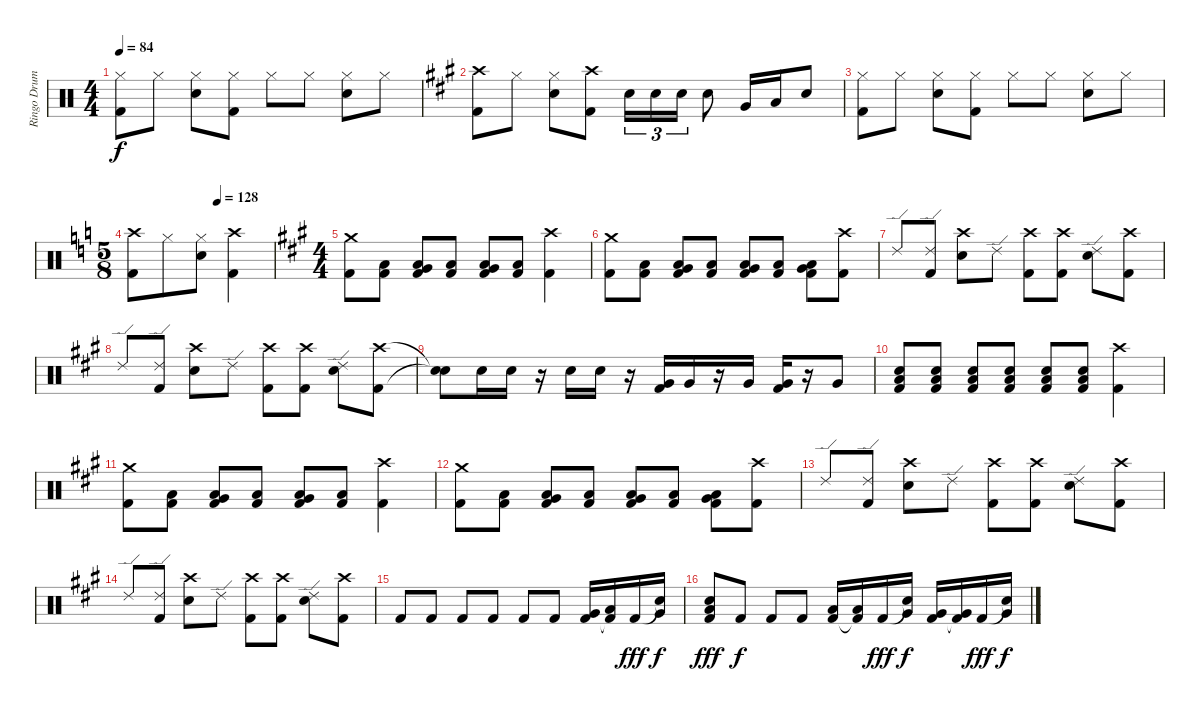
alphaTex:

\track ("Ringo Drums" "Ringo Drum") {instrument percussion}
\staff {score}
\articulation defaults
\ts (4 4)
\tempo 84
\clef neutral
\ks c
("Hi-Hat (closed)" "Kick (hit) 2").8{dy f} "Hi-Hat (closed)".8 ("Hi-Hat (closed)" "Snare (hit) 2").8 ("Hi-Hat (closed)" "Kick (hit) 2").8 "Hi-Hat (closed)".8 "Hi-Hat (closed)".8 ("Hi-Hat (closed)" "Snare (hit) 2").8 "Hi-Hat (closed)".8 |
\ks a
("Crash high (hit)" "Kick (hit) 2").8 "Hi-Hat (closed)".8 ("Hi-Hat (closed)" "Snare (hit) 2").8 ("Crash high (hit)" "Kick (hit) 2").8 "Snare (hit) 2".16{tu (3 2)} "Snare (hit) 2".16{tu (3 2)} "Snare (hit) 2".16{tu (3 2)} "Snare (hit) 2".8 "Very Low Tom (hit)".16 "Low Floor Tom (hit)".16 "Snare (hit) 2".8 |
("Hi-Hat (closed)" "Kick (hit) 2").8 "Hi-Hat (closed)".8 ("Hi-Hat (closed)" "Snare (hit) 2").8 ("Hi-Hat (closed)" "Kick (hit) 2").8 "Hi-Hat (closed)".8 "Hi-Hat (closed)".8 ("Hi-Hat (closed)" "Snare (hit) 2").8 "Hi-Hat (closed)".8 |
\ts (5 8)
\tempo (128 0.6)
\ks c
("Crash high (hit)" "Kick (hit) 2").8 "Hi-Hat (closed)".8 ("Hi-Hat (closed)" "Snare (hit) 2").8 ("Crash high (hit)" "Kick (hit) 2").4 |
\ts (4 4)
\ks a
("Crash medium (hit)" "Kick (hit) 2").8 ("Kick (hit) 2" "Low Floor Tom (hit)").8 ("Kick (hit) 2" "Low Floor Tom (hit)" "Very Low Tom (hit)").8 ("Kick (hit) 2" "Low Floor Tom (hit)").8 ("Kick (hit) 2" "Low Floor Tom (hit)" "Very Low Tom (hit)").8 ("Kick (hit) 2" "Low Floor Tom (hit)").8 ("Crash high (hit)" "Kick (hit) 2").4 |
("Crash medium (hit)" "Kick (hit) 2").8 ("Kick (hit) 2" "Low Floor Tom (hit)").8 ("Kick (hit) 2" "Low Floor Tom (hit)" "Very Low Tom (hit)").8 ("Kick (hit) 2" "Low Floor Tom (hit)").8 ("Kick (hit) 2" "Low Floor Tom (hit)" "Very Low Tom (hit)").8 ("Kick (hit) 2" "Low Floor Tom (hit)").8 ("Kick (hit) 2" "Low Floor Tom (hit)" "Very Low Tom (hit)").8 ("Crash high (hit)" "Kick (hit) 2").8 |
"Ride (edge) 2".8 ("Ride (edge) 2" "Kick (hit) 2").8 ("Crash high (hit)" "Snare (hit) 2").8 "Ride (edge) 2".8 ("Crash high (hit)" "Kick (hit) 2").8 ("Crash high (hit)" "Kick (hit) 2").8 ("Ride (edge) 2" "Snare (hit) 2").8 ("Crash high (hit)" "Kick (hit) 2").8 |
"Ride (edge) 2".8 ("Ride (edge) 2" "Kick (hit) 2").8 ("Crash high (hit)" "Snare (hit) 2").8 "Ride (edge) 2".8 ("Crash high (hit)" "Kick (hit) 2").8 ("Crash high (hit)" "Kick (hit) 2").8 ("Ride (edge) 2" "Snare (hit) 2").8 ("Crash high (hit)" "Kick (hit) 2").8 |
("Snare (hit)"{t} "Snare (hit)"{t}).8 "Snare (hit) 2".16 "Snare (hit) 2".16 r.16 "Snare (hit) 2".16 "Snare (hit) 2".16 r.16 ("Kick (hit) 2" "Very Low Tom (hit)").16 "Very Low Tom (hit)".16 r.16 "Very Low Tom (hit)".16 ("Kick (hit) 2" "Very Low Tom (hit)").16 r.16 "Very Low Tom (hit)".8 |
("Kick (hit) 2" "Snare (hit) 2" "Low Floor Tom (hit)").8 ("Kick (hit) 2" "Snare (hit) 2" "Low Floor Tom (hit)").8 ("Kick (hit) 2" "Snare (hit) 2" "Low Floor Tom (hit)").8 ("Kick (hit) 2" "Snare (hit) 2" "Low Floor Tom (hit)").8 ("Kick (hit) 2" "Snare (hit) 2" "Low Floor Tom (hit)").8 ("Kick (hit) 2" "Snare (hit) 2" "Low Floor Tom (hit)").8 ("Crash high (hit)" "Kick (hit) 2").4 |
("Crash medium (hit)" "Kick (hit) 2").8 ("Kick (hit) 2" "Low Floor Tom (hit)").8 ("Kick (hit) 2" "Low Floor Tom (hit)" "Very Low Tom (hit)").8 ("Kick (hit) 2" "Low Floor Tom (hit)").8 ("Kick (hit) 2" "Low Floor Tom (hit)" "Very Low Tom (hit)").8 ("Kick (hit) 2" "Low Floor Tom (hit)").8 ("Crash high (hit)" "Kick (hit) 2").4 |
("Crash medium (hit)" "Kick (hit) 2").8 ("Kick (hit) 2" "Low Floor Tom (hit)").8 ("Kick (hit) 2" "Low Floor Tom (hit)" "Very Low Tom (hit)").8 ("Kick (hit) 2" "Low Floor Tom (hit)").8 ("Kick (hit) 2" "Low Floor Tom (hit)" "Very Low Tom (hit)").8 ("Kick (hit) 2" "Low Floor Tom (hit)").8 ("Kick (hit) 2" "Low Floor Tom (hit)" "Very Low Tom (hit)").8 ("Crash high (hit)" "Kick (hit) 2").8 |
"Ride (edge) 2".8 ("Ride (edge) 2" "Kick (hit) 2").8 ("Crash high (hit)" "Snare (hit) 2").8 "Ride (edge) 2".8 ("Crash high (hit)" "Kick (hit) 2").8 ("Crash high (hit)" "Kick (hit) 2").8 ("Ride (edge) 2" "Snare (hit) 2").8 ("Crash high (hit)" "Kick (hit) 2").8 |
"Ride (edge) 2".8 ("Ride (edge) 2" "Kick (hit) 2").8 ("Crash high (hit)" "Snare (hit) 2").8 "Ride (edge) 2".8 ("Crash high (hit)" "Kick (hit) 2").8 ("Crash high (hit)" "Kick (hit) 2").8 ("Ride (edge) 2" "Snare (hit) 2").8 ("Crash high (hit)" "Kick (hit) 2").8 |
"Kick (hit) 2".8{volume 16} "Kick (hit) 2".8 "Kick (hit) 2".8 "Kick (hit) 2".8 "Kick (hit) 2".8 "Kick (hit) 2".8 ("Kick (hit) 2" "Very Low Tom (hit)").16 ("Kick (hit) 2"{t} "Low Tom (hit)").16 "Kick (hit) 2".16{dy fff} ("Snare (hit)"{t} "Very Low Tom (hit)").16{dy f} |
("Kick (hit) 2" "Snare (hit) 2" "Low Floor Tom (hit)").8{dy fff} "Kick (hit) 2".8{dy f} "Kick (hit) 2".8 "Kick (hit) 2".8 ("Kick (hit) 2" "Low Tom (hit)").16 ("Kick (hit) 2"{t} "Low Tom (hit)").16 "Kick (hit) 2".16{dy fff} ("Snare (hit)"{t} "Very Low Tom (hit)").16{dy f} ("Kick (hit) 2" "Very Low Tom (hit)").16 ("Kick (hit) 2"{t} "Very Low Tom (hit)").16 "Kick (hit) 2".16{dy fff} ("Snare (hit)"{t} "Very Low Tom (hit)").16{dy f}
